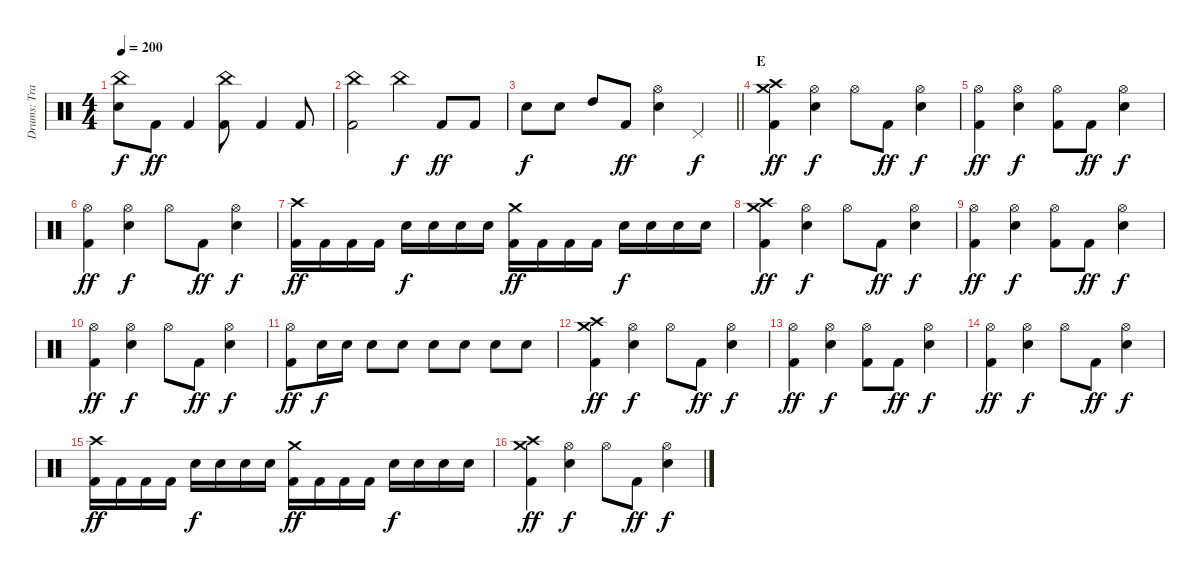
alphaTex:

\track ("Drums: Travis Clarke" "Drums: Tra") {instrument percussion}
\staff {score}
\articulation defaults
\ts (4 4)
\tempo 200
\clef neutral
\ks c
("Snare (hit) 2" "China (hit)").8{dy f} "Kick (hit) 2".8{dy ff} "Kick (hit) 2".4 ("Kick (hit) 2" "China (hit)").8 "Kick (hit) 2".4 "Kick (hit) 2".8 |
("Kick (hit) 2" "China (hit)").2 "China (hit)".4{dy f} "Kick (hit) 2".8{dy ff} "Kick (hit) 2".8 |
\barLineRight lightlight "Snare (hit) 2".8{dy f} "Snare (hit) 2".8 "High Tom (hit)".8 "Kick (hit) 2".8{dy ff}
("Snare (hit) 2" "Hi-Hat (open)").4 "Pedal Hi-Hat (hit)".4{dy f} |
\section ("" "E")
("Kick (hit) 2" "Crash high (hit)" "Crash medium (hit)").4{dy ff} ("Snare (hit) 2" "Hi-Hat (open)").4{dy f} "Hi-Hat (open)".8 "Kick (hit) 2".8{dy ff} ("Snare (hit) 2" "Hi-Hat (open)").4{dy f} |
("Kick (hit) 2" "Hi-Hat (open)").4{dy ff} ("Snare (hit) 2" "Hi-Hat (open)").4{dy f} ("Kick (hit) 2" "Hi-Hat (open)").8 "Kick (hit) 2".8{dy ff} ("Snare (hit) 2" "Hi-Hat (open)").4{dy f} |
("Kick (hit) 2" "Hi-Hat (open)").4{dy ff} ("Snare (hit) 2" "Hi-Hat (open)").4{dy f} "Hi-Hat (open)".8 "Kick (hit) 2".8{dy ff} ("Snare (hit) 2" "Hi-Hat (open)").4{dy f} |
("Kick (hit) 2" "Crash high (hit)").16{dy ff} "Kick (hit) 2".16 "Kick (hit) 2".16 "Kick (hit) 2".16 "Snare (hit) 2".16{dy f} "Snare (hit) 2".16 "Snare (hit) 2".16 "Snare (hit) 2".16 ("Kick (hit) 2" "Crash medium (hit)").16{dy ff} "Kick (hit) 2".16 "Kick (hit) 2".16 "Kick (hit) 2".16 "Snare (hit) 2".16{dy f} "Snare (hit) 2".16 "Snare (hit) 2".16 "Snare (hit) 2".16 |
("Kick (hit) 2" "Crash high (hit)" "Crash medium (hit)").4{dy ff} ("Snare (hit) 2" "Hi-Hat (open)").4{dy f} "Hi-Hat (open)".8 "Kick (hit) 2".8{dy ff} ("Snare (hit) 2" "Hi-Hat (open)").4{dy f} |
("Kick (hit) 2" "Hi-Hat (open)").4{dy ff} ("Snare (hit) 2" "Hi-Hat (open)").4{dy f} ("Kick (hit) 2" "Hi-Hat (open)").8 "Kick (hit) 2".8{dy ff} ("Snare (hit) 2" "Hi-Hat (open)").4{dy f} |
("Kick (hit) 2" "Hi-Hat (open)").4{dy ff} ("Snare (hit) 2" "Hi-Hat (open)").4{dy f} "Hi-Hat (open)".8 "Kick (hit) 2".8{dy ff} ("Snare (hit) 2" "Hi-Hat (open)").4{dy f} |
("Kick (hit) 2" "Hi-Hat (open)").8{dy ff} "Snare (hit) 2".16{dy f} "Snare (hit) 2".16 "Snare (hit) 2".8 "Snare (hit) 2".8 "Snare (hit) 2".8 "Snare (hit) 2".8 "Snare (hit) 2".8 "Snare (hit) 2".8 |
("Kick (hit) 2" "Crash high (hit)" "Crash medium (hit)").4{dy ff} ("Snare (hit) 2" "Hi-Hat (open)").4{dy f} "Hi-Hat (open)".8 "Kick (hit) 2".8{dy ff} ("Snare (hit) 2" "Hi-Hat (open)").4{dy f} |
("Kick (hit) 2" "Hi-Hat (open)").4{dy ff} ("Snare (hit) 2" "Hi-Hat (open)").4{dy f} ("Kick (hit) 2" "Hi-Hat (open)").8 "Kick (hit) 2".8{dy ff} ("Snare (hit) 2" "Hi-Hat (open)").4{dy f} |
("Kick (hit) 2" "Hi-Hat (open)").4{dy ff} ("Snare (hit) 2" "Hi-Hat (open)").4{dy f} "Hi-Hat (open)".8 "Kick (hit) 2".8{dy ff} ("Snare (hit) 2" "Hi-Hat (open)").4{dy f} |
("Kick (hit) 2" "Crash high (hit)").16{dy ff} "Kick (hit) 2".16 "Kick (hit) 2".16 "Kick (hit) 2".16 "Snare (hit) 2".16{dy f} "Snare (hit) 2".16 "Snare (hit) 2".16 "Snare (hit) 2".16 ("Kick (hit) 2" "Crash medium (hit)").16{dy ff} "Kick (hit) 2".16 "Kick (hit) 2".16 "Kick (hit) 2".16 "Snare (hit) 2".16{dy f} "Snare (hit) 2".16 "Snare (hit) 2".16 "Snare (hit) 2".16 |
("Kick (hit) 2" "Crash high (hit)" "Crash medium (hit)").4{dy ff} ("Snare (hit) 2" "Hi-Hat (open)").4{dy f} "Hi-Hat (open)".8 "Kick (hit) 2".8{dy ff} ("Snare (hit) 2" "Hi-Hat (open)").4{dy f}
